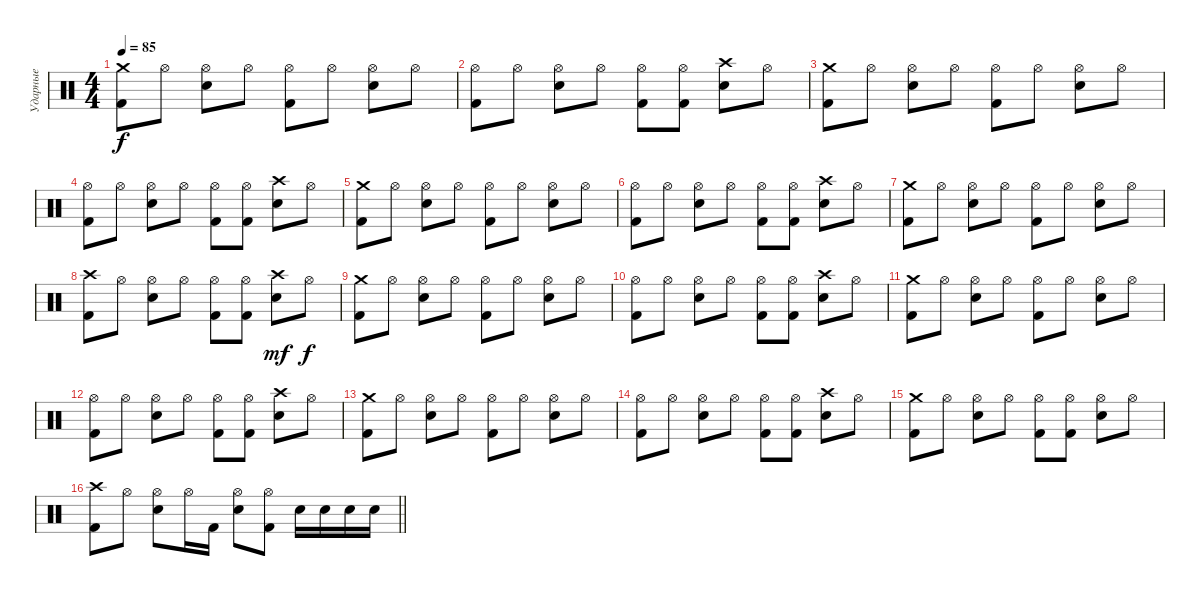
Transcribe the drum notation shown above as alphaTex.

\track ("Ударные" "Ударные") {instrument percussion}
\staff {score}
\articulation defaults
\ts (4 4)
\tempo 85
\clef neutral
\ks c
("Crash medium (hit)" "Kick (hit) 2").8{dy f} "Hi-Hat (open)".8 ("Hi-Hat (open)" "Electric Snare (hit)").8 "Hi-Hat (open)".8 ("Hi-Hat (open)" "Kick (hit) 2").8 "Hi-Hat (open)".8 ("Hi-Hat (open)" "Electric Snare (hit)").8 "Hi-Hat (open)".8 |
("Hi-Hat (open)" "Kick (hit) 2").8 "Hi-Hat (open)".8 ("Hi-Hat (open)" "Electric Snare (hit)").8 "Hi-Hat (open)".8 ("Hi-Hat (open)" "Kick (hit) 2").8 ("Hi-Hat (open)" "Kick (hit) 2").8 ("Crash high (hit)" "Electric Snare (hit)").8 "Hi-Hat (open)".8 |
("Crash medium (hit)" "Kick (hit) 2").8 "Hi-Hat (open)".8 ("Hi-Hat (open)" "Electric Snare (hit)").8 "Hi-Hat (open)".8 ("Hi-Hat (open)" "Kick (hit) 2").8 "Hi-Hat (open)".8 ("Hi-Hat (open)" "Electric Snare (hit)").8 "Hi-Hat (open)".8 |
("Hi-Hat (open)" "Kick (hit) 2").8 "Hi-Hat (open)".8 ("Hi-Hat (open)" "Electric Snare (hit)").8 "Hi-Hat (open)".8 ("Hi-Hat (open)" "Kick (hit) 2").8 ("Hi-Hat (open)" "Kick (hit) 2").8 ("Crash high (hit)" "Electric Snare (hit)").8 "Hi-Hat (open)".8 |
("Crash medium (hit)" "Kick (hit) 2").8 "Hi-Hat (open)".8 ("Hi-Hat (open)" "Electric Snare (hit)").8 "Hi-Hat (open)".8 ("Hi-Hat (open)" "Kick (hit) 2").8 "Hi-Hat (open)".8 ("Hi-Hat (open)" "Electric Snare (hit)").8 "Hi-Hat (open)".8 |
("Hi-Hat (open)" "Kick (hit) 2").8 "Hi-Hat (open)".8 ("Hi-Hat (open)" "Electric Snare (hit)").8 "Hi-Hat (open)".8 ("Hi-Hat (open)" "Kick (hit) 2").8 ("Hi-Hat (open)" "Kick (hit) 2").8 ("Crash high (hit)" "Electric Snare (hit)").8 "Hi-Hat (open)".8 |
("Crash medium (hit)" "Kick (hit) 2").8 "Hi-Hat (open)".8 ("Hi-Hat (open)" "Electric Snare (hit)").8 "Hi-Hat (open)".8 ("Hi-Hat (open)" "Kick (hit) 2").8 "Hi-Hat (open)".8 ("Hi-Hat (open)" "Electric Snare (hit)").8 "Hi-Hat (open)".8 |
("Crash high (hit)" "Kick (hit) 2").8 "Hi-Hat (open)".8 ("Hi-Hat (open)" "Electric Snare (hit)").8 "Hi-Hat (open)".8 ("Hi-Hat (open)" "Kick (hit) 2").8 ("Hi-Hat (open)" "Kick (hit) 2").8 ("Crash high (hit)" "Electric Snare (hit)").8{dy mf} "Hi-Hat (open)".8{dy f} |
("Crash medium (hit)" "Kick (hit) 2").8 "Hi-Hat (open)".8 ("Hi-Hat (open)" "Electric Snare (hit)").8 "Hi-Hat (open)".8 ("Hi-Hat (open)" "Kick (hit) 2").8 "Hi-Hat (open)".8 ("Hi-Hat (open)" "Electric Snare (hit)").8 "Hi-Hat (open)".8 |
("Hi-Hat (open)" "Kick (hit) 2").8 "Hi-Hat (open)".8 ("Hi-Hat (open)" "Electric Snare (hit)").8 "Hi-Hat (open)".8 ("Hi-Hat (open)" "Kick (hit) 2").8 ("Hi-Hat (open)" "Kick (hit) 2").8 ("Crash high (hit)" "Electric Snare (hit)").8 "Hi-Hat (open)".8 |
("Crash medium (hit)" "Kick (hit) 2").8 "Hi-Hat (open)".8 ("Hi-Hat (open)" "Electric Snare (hit)").8 "Hi-Hat (open)".8 ("Hi-Hat (open)" "Kick (hit) 2").8 "Hi-Hat (open)".8 ("Hi-Hat (open)" "Electric Snare (hit)").8 "Hi-Hat (open)".8 |
("Hi-Hat (open)" "Kick (hit) 2").8 "Hi-Hat (open)".8 ("Hi-Hat (open)" "Electric Snare (hit)").8 "Hi-Hat (open)".8 ("Hi-Hat (open)" "Kick (hit) 2").8 ("Hi-Hat (open)" "Kick (hit) 2").8 ("Crash high (hit)" "Electric Snare (hit)").8 "Hi-Hat (open)".8 |
("Crash medium (hit)" "Kick (hit) 2").8 "Hi-Hat (open)".8 ("Hi-Hat (open)" "Electric Snare (hit)").8 "Hi-Hat (open)".8 ("Hi-Hat (open)" "Kick (hit) 2").8 "Hi-Hat (open)".8 ("Hi-Hat (open)" "Electric Snare (hit)").8 "Hi-Hat (open)".8 |
("Hi-Hat (open)" "Kick (hit) 2").8 "Hi-Hat (open)".8 ("Hi-Hat (open)" "Electric Snare (hit)").8 "Hi-Hat (open)".8 ("Hi-Hat (open)" "Kick (hit) 2").8 ("Hi-Hat (open)" "Kick (hit) 2").8 ("Crash high (hit)" "Electric Snare (hit)").8 "Hi-Hat (open)".8 |
("Crash medium (hit)" "Kick (hit) 2").8 "Hi-Hat (open)".8 ("Hi-Hat (open)" "Electric Snare (hit)").8 "Hi-Hat (open)".8 ("Hi-Hat (open)" "Kick (hit) 2").8 ("Hi-Hat (open)" "Kick (hit) 2").8 ("Hi-Hat (open)" "Electric Snare (hit)").8 "Hi-Hat (open)".8 |
\barLineRight lightlight
("Crash high (hit)" "Kick (hit) 2").8 "Hi-Hat (open)".8 ("Hi-Hat (open)" "Electric Snare (hit)").8 "Hi-Hat (open)".16 "Kick (hit) 2".16 ("Hi-Hat (open)" "Electric Snare (hit)").8 ("Hi-Hat (open)" "Kick (hit) 2").8 "Electric Snare (hit)".16 "Electric Snare (hit)".16 "Electric Snare (hit)".16 "Electric Snare (hit)".16
